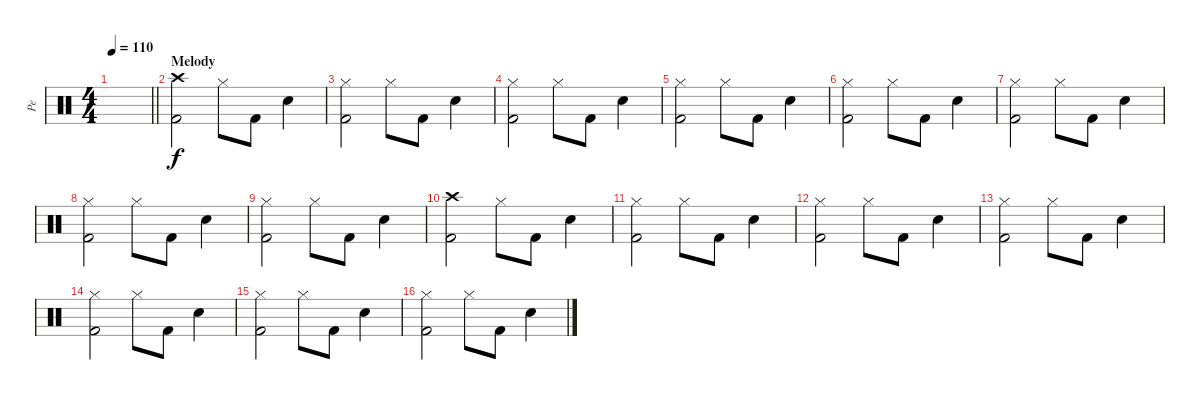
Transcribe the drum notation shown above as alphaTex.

\track ("Pe" "Pe") {instrument percussion}
\staff {score}
\articulation defaults
\ts (4 4)
\tempo 110
\clef neutral
\barLineRight lightlight
\ks c
|
\section ("" "Melody")
("Kick (hit) 2" "Crash high (hit)").2 "Hi-Hat (closed)".8 "Kick (hit) 2".8 "Electric Snare (hit)".4 |
("Kick (hit) 2" "Hi-Hat (closed)").2 "Hi-Hat (closed)".8 "Kick (hit) 2".8 "Electric Snare (hit)".4 |
("Kick (hit) 2" "Hi-Hat (closed)").2 "Hi-Hat (closed)".8 "Kick (hit) 2".8 "Electric Snare (hit)".4 |
("Kick (hit) 2" "Hi-Hat (closed)").2 "Hi-Hat (closed)".8 "Kick (hit) 2".8 "Electric Snare (hit)".4 |
("Kick (hit) 2" "Hi-Hat (closed)").2 "Hi-Hat (closed)".8 "Kick (hit) 2".8 "Electric Snare (hit)".4 |
("Kick (hit) 2" "Hi-Hat (closed)").2 "Hi-Hat (closed)".8 "Kick (hit) 2".8 "Electric Snare (hit)".4 |
("Kick (hit) 2" "Hi-Hat (closed)").2 "Hi-Hat (closed)".8 "Kick (hit) 2".8 "Electric Snare (hit)".4 |
("Kick (hit) 2" "Hi-Hat (closed)").2 "Hi-Hat (closed)".8 "Kick (hit) 2".8 "Electric Snare (hit)".4 |
("Kick (hit) 2" "Crash high (hit)").2 "Hi-Hat (closed)".8 "Kick (hit) 2".8 "Electric Snare (hit)".4 |
("Kick (hit) 2" "Hi-Hat (closed)").2 "Hi-Hat (closed)".8 "Kick (hit) 2".8 "Electric Snare (hit)".4 |
("Kick (hit) 2" "Hi-Hat (closed)").2 "Hi-Hat (closed)".8 "Kick (hit) 2".8 "Electric Snare (hit)".4 |
("Kick (hit) 2" "Hi-Hat (closed)").2 "Hi-Hat (closed)".8 "Kick (hit) 2".8 "Electric Snare (hit)".4 |
("Kick (hit) 2" "Hi-Hat (closed)").2 "Hi-Hat (closed)".8 "Kick (hit) 2".8 "Electric Snare (hit)".4 |
("Kick (hit) 2" "Hi-Hat (closed)").2 "Hi-Hat (closed)".8 "Kick (hit) 2".8 "Electric Snare (hit)".4 |
("Kick (hit) 2" "Hi-Hat (closed)").2 "Hi-Hat (closed)".8 "Kick (hit) 2".8 "Electric Snare (hit)".4
